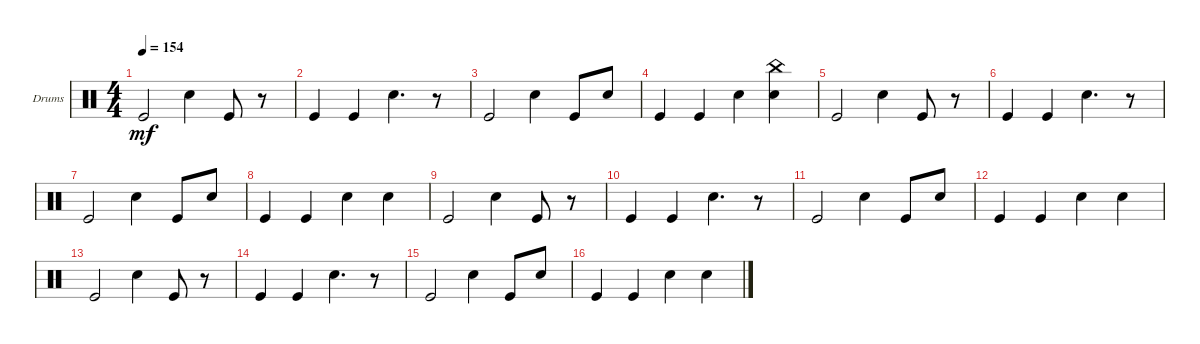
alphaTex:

\defaultSystemsLayout 4
\bracketExtendMode groupsimilarinstruments
\firstSystemTrackNameOrientation horizontal
\otherSystemsTrackNameOrientation horizontal
\track ("Drumkit" "Drums") {instrument percussion}
\staff {score}
\articulation defaults
\ts (4 4)
\tempo 154
\clef neutral
\ks c "Kick (hit)".2{dy mf} "Snare (hit) 2".4 "Kick (hit)".8
r.8 |
"Kick (hit)".4 "Kick (hit)".4 "Snare (hit) 2".4{d} r.8 |
"Kick (hit)".2 "Snare (hit) 2".4 "Kick (hit)".8 "Snare (hit) 2".8 |
"Kick (hit)".4 "Kick (hit)".4 "Snare (hit) 2".4 ("China (hit)" "Snare (hit) 2").4 |
"Kick (hit)".2 "Snare (hit) 2".4 "Kick (hit)".8 r.8 |
"Kick (hit)".4 "Kick (hit)".4 "Snare (hit) 2".4{d} r.8 |
"Kick (hit)".2 "Snare (hit) 2".4 "Kick (hit)".8 "Snare (hit) 2".8 |
"Kick (hit)".4 "Kick (hit)".4 "Snare (hit) 2".4 "Snare (hit) 2".4 |
"Kick (hit)".2 "Snare (hit) 2".4 "Kick (hit)".8 r.8 |
"Kick (hit)".4 "Kick (hit)".4 "Snare (hit) 2".4{d} r.8 |
"Kick (hit)".2 "Snare (hit) 2".4 "Kick (hit)".8 "Snare (hit) 2".8 |
"Kick (hit)".4 "Kick (hit)".4 "Snare (hit) 2".4 "Snare (hit) 2".4 |
"Kick (hit)".2 "Snare (hit) 2".4 "Kick (hit)".8 r.8 |
"Kick (hit)".4 "Kick (hit)".4 "Snare (hit) 2".4{d} r.8 |
"Kick (hit)".2 "Snare (hit) 2".4 "Kick (hit)".8 "Snare (hit) 2".8 |
"Kick (hit)".4 "Kick (hit)".4 "Snare (hit) 2".4 "Snare (hit) 2".4
